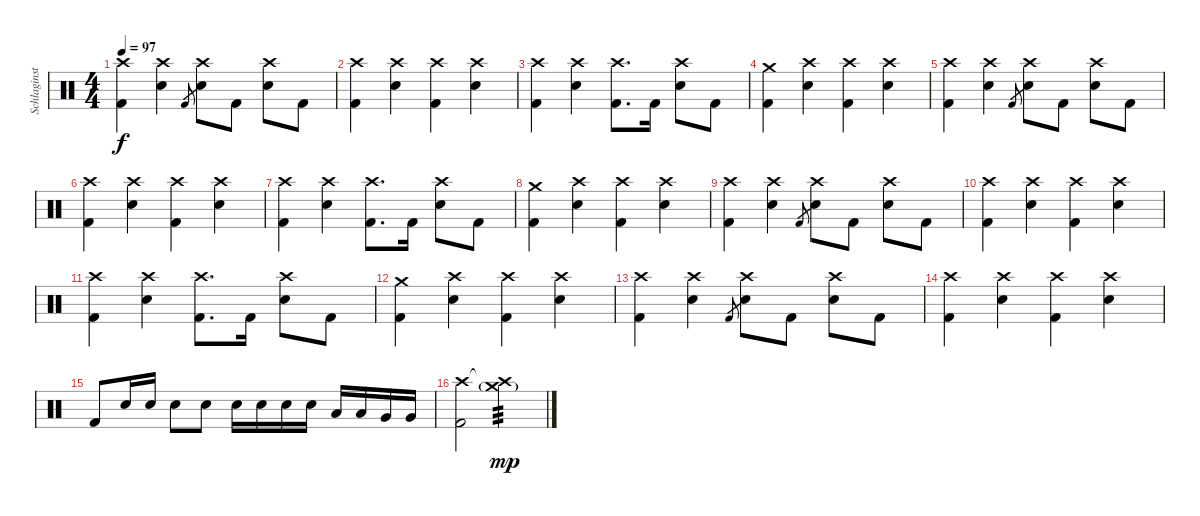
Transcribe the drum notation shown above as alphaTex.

\track ("Schlaginstrumente - Auswahl" "Schlaginst") {instrument percussion}
\staff {score}
\articulation defaults
\ts (4 4)
\tempo 97
\clef neutral
\ks c
("Crash high (hit)" "Kick (hit) 2").4{dy f} ("Crash high (hit)" "Electric Snare (hit)").4 "Kick (hit) 2".8{gr} ("Crash high (hit)" "Electric Snare (hit)").8 "Kick (hit) 2".8 ("Crash high (hit)" "Electric Snare (hit)").8 "Kick (hit) 2".8 |
("Crash high (hit)" "Kick (hit) 2").4 ("Crash high (hit)" "Electric Snare (hit)").4 ("Crash high (hit)" "Kick (hit) 2").4 ("Crash high (hit)" "Electric Snare (hit)").4 |
("Crash high (hit)" "Kick (hit) 2").4 ("Crash high (hit)" "Electric Snare (hit)").4 ("Crash high (hit)" "Kick (hit) 2").8{d} "Kick (hit) 2".16 ("Crash high (hit)" "Electric Snare (hit)").8 "Kick (hit) 2".8 |
("Crash medium (hit)" "Kick (hit) 2").4 ("Crash high (hit)" "Electric Snare (hit)").4 ("Crash high (hit)" "Kick (hit) 2").4 ("Crash high (hit)" "Electric Snare (hit)").4 |
("Crash high (hit)" "Kick (hit) 2").4 ("Crash high (hit)" "Electric Snare (hit)").4 "Kick (hit) 2".8{gr} ("Crash high (hit)" "Electric Snare (hit)").8 "Kick (hit) 2".8 ("Crash high (hit)" "Electric Snare (hit)").8 "Kick (hit) 2".8 |
("Crash high (hit)" "Kick (hit) 2").4 ("Crash high (hit)" "Electric Snare (hit)").4 ("Crash high (hit)" "Kick (hit) 2").4 ("Crash high (hit)" "Electric Snare (hit)").4 |
("Crash high (hit)" "Kick (hit) 2").4 ("Crash high (hit)" "Electric Snare (hit)").4 ("Crash high (hit)" "Kick (hit) 2").8{d} "Kick (hit) 2".16 ("Crash high (hit)" "Electric Snare (hit)").8 "Kick (hit) 2".8 |
("Crash medium (hit)" "Kick (hit) 2").4 ("Crash high (hit)" "Electric Snare (hit)").4 ("Crash high (hit)" "Kick (hit) 2").4 ("Crash high (hit)" "Electric Snare (hit)").4 |
("Crash high (hit)" "Kick (hit) 2").4 ("Crash high (hit)" "Electric Snare (hit)").4 "Kick (hit) 2".8{gr} ("Crash high (hit)" "Electric Snare (hit)").8 "Kick (hit) 2".8 ("Crash high (hit)" "Electric Snare (hit)").8 "Kick (hit) 2".8 |
("Crash high (hit)" "Kick (hit) 2").4 ("Crash high (hit)" "Electric Snare (hit)").4 ("Crash high (hit)" "Kick (hit) 2").4 ("Crash high (hit)" "Electric Snare (hit)").4 |
("Crash high (hit)" "Kick (hit) 2").4 ("Crash high (hit)" "Electric Snare (hit)").4 ("Crash high (hit)" "Kick (hit) 2").8{d} "Kick (hit) 2".16 ("Crash high (hit)" "Electric Snare (hit)").8 "Kick (hit) 2".8 |
("Crash medium (hit)" "Kick (hit) 2").4 ("Crash high (hit)" "Electric Snare (hit)").4 ("Crash high (hit)" "Kick (hit) 2").4 ("Crash high (hit)" "Electric Snare (hit)").4 |
("Crash high (hit)" "Kick (hit) 2").4 ("Crash high (hit)" "Electric Snare (hit)").4 "Kick (hit) 2".8{gr} ("Crash high (hit)" "Electric Snare (hit)").8 "Kick (hit) 2".8 ("Crash high (hit)" "Electric Snare (hit)").8 "Kick (hit) 2".8 |
("Crash high (hit)" "Kick (hit) 2").4 ("Crash high (hit)" "Electric Snare (hit)").4 ("Crash high (hit)" "Kick (hit) 2").4 ("Crash high (hit)" "Electric Snare (hit)").4 |
"Kick (hit) 2".8 "Electric Snare (hit)".16 "Electric Snare (hit)".16 "Electric Snare (hit)".8 "Electric Snare (hit)".8 "Electric Snare (hit)".16 "Electric Snare (hit)".16 "Electric Snare (hit)".16 "Electric Snare (hit)".16 "Low Tom (hit)".16 "Low Tom (hit)".16 "Very Low Tom (hit)".16 "Very Low Tom (hit)".16 |
("Crash high (hit)" "Kick (hit) 2").2 ("Crash high (hit)"{t} "Crash medium (hit)"{g}).2{tp 3 dy mp}
